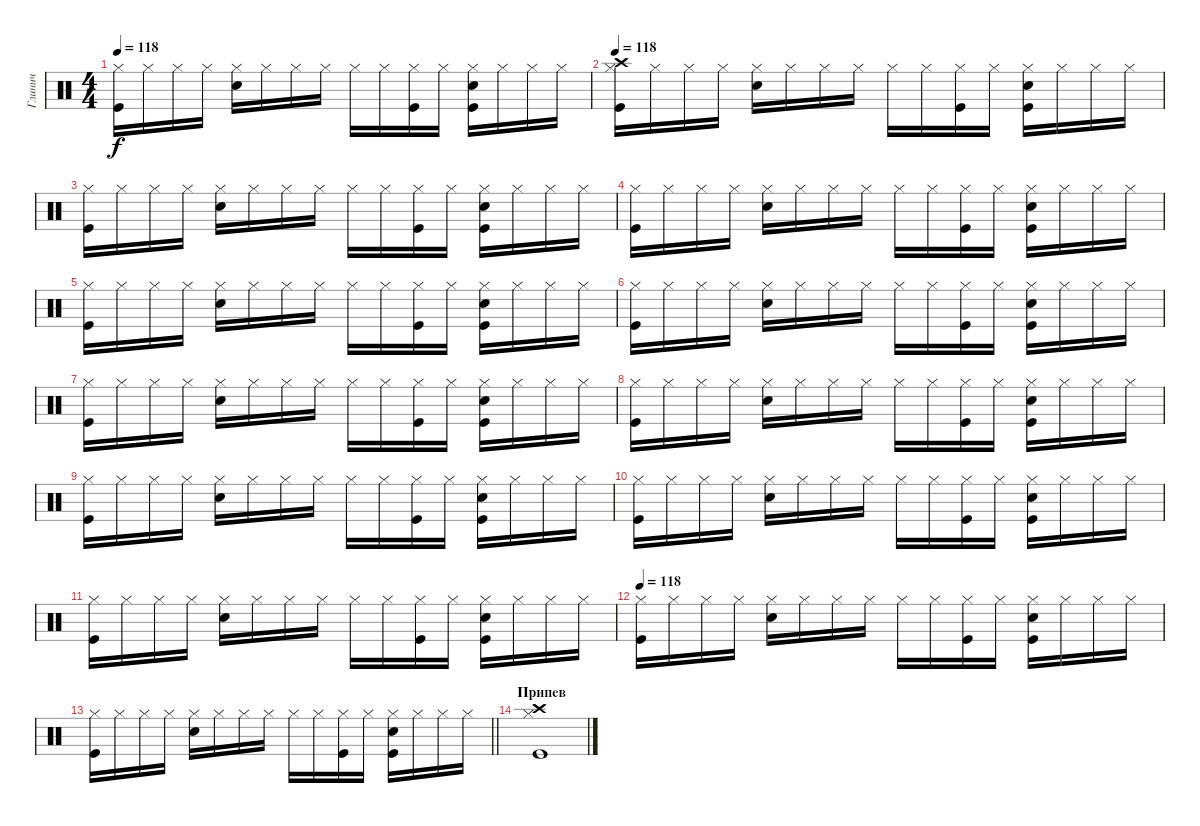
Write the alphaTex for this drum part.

\track ("Глинич" "Глинич") {instrument percussion}
\staff {score}
\articulation defaults
\ts (4 4)
\tempo 118
\clef neutral
\ks c
("Hi-Hat (closed)" "Kick (hit)").16{dy f} "Hi-Hat (closed)".16 "Hi-Hat (closed)".16 "Hi-Hat (closed)".16 ("Hi-Hat (closed)" "Snare (hit) 2").16 "Hi-Hat (closed)".16 "Hi-Hat (closed)".16 "Hi-Hat (closed)".16 "Hi-Hat (closed)".16 "Hi-Hat (closed)".16 ("Hi-Hat (closed)" "Kick (hit)").16 "Hi-Hat (closed)".16 ("Hi-Hat (closed)" "Snare (hit) 2" "Kick (hit)").16 "Hi-Hat (closed)".16 "Hi-Hat (closed)".16 "Hi-Hat (closed)".16 |
\tempo 118
("Hi-Hat (closed)" "Kick (hit)" "Crash high (hit)").16 "Hi-Hat (closed)".16 "Hi-Hat (closed)".16 "Hi-Hat (closed)".16 ("Hi-Hat (closed)" "Snare (hit) 2").16 "Hi-Hat (closed)".16 "Hi-Hat (closed)".16 "Hi-Hat (closed)".16 "Hi-Hat (closed)".16 "Hi-Hat (closed)".16 ("Hi-Hat (closed)" "Kick (hit)").16 "Hi-Hat (closed)".16 ("Hi-Hat (closed)" "Snare (hit) 2" "Kick (hit)").16 "Hi-Hat (closed)".16 "Hi-Hat (closed)".16 "Hi-Hat (closed)".16 |
("Hi-Hat (closed)" "Kick (hit)").16 "Hi-Hat (closed)".16 "Hi-Hat (closed)".16 "Hi-Hat (closed)".16 ("Hi-Hat (closed)" "Snare (hit) 2").16 "Hi-Hat (closed)".16 "Hi-Hat (closed)".16 "Hi-Hat (closed)".16 "Hi-Hat (closed)".16 "Hi-Hat (closed)".16 ("Hi-Hat (closed)" "Kick (hit)").16 "Hi-Hat (closed)".16 ("Hi-Hat (closed)" "Snare (hit) 2" "Kick (hit)").16 "Hi-Hat (closed)".16 "Hi-Hat (closed)".16 "Hi-Hat (closed)".16 |
("Hi-Hat (closed)" "Kick (hit)").16 "Hi-Hat (closed)".16 "Hi-Hat (closed)".16 "Hi-Hat (closed)".16 ("Hi-Hat (closed)" "Snare (hit) 2").16 "Hi-Hat (closed)".16 "Hi-Hat (closed)".16 "Hi-Hat (closed)".16 "Hi-Hat (closed)".16 "Hi-Hat (closed)".16 ("Hi-Hat (closed)" "Kick (hit)").16 "Hi-Hat (closed)".16 ("Hi-Hat (closed)" "Snare (hit) 2" "Kick (hit)").16 "Hi-Hat (closed)".16 "Hi-Hat (closed)".16 "Hi-Hat (closed)".16 |
("Hi-Hat (closed)" "Kick (hit)").16 "Hi-Hat (closed)".16 "Hi-Hat (closed)".16 "Hi-Hat (closed)".16 ("Hi-Hat (closed)" "Snare (hit) 2").16 "Hi-Hat (closed)".16 "Hi-Hat (closed)".16 "Hi-Hat (closed)".16 "Hi-Hat (closed)".16 "Hi-Hat (closed)".16 ("Hi-Hat (closed)" "Kick (hit)").16 "Hi-Hat (closed)".16 ("Hi-Hat (closed)" "Snare (hit) 2" "Kick (hit)").16 "Hi-Hat (closed)".16 "Hi-Hat (closed)".16 "Hi-Hat (closed)".16 |
("Hi-Hat (closed)" "Kick (hit)").16 "Hi-Hat (closed)".16 "Hi-Hat (closed)".16 "Hi-Hat (closed)".16 ("Hi-Hat (closed)" "Snare (hit) 2").16 "Hi-Hat (closed)".16 "Hi-Hat (closed)".16 "Hi-Hat (closed)".16 "Hi-Hat (closed)".16 "Hi-Hat (closed)".16 ("Hi-Hat (closed)" "Kick (hit)").16 "Hi-Hat (closed)".16 ("Hi-Hat (closed)" "Snare (hit) 2" "Kick (hit)").16 "Hi-Hat (closed)".16 "Hi-Hat (closed)".16 "Hi-Hat (closed)".16 |
("Hi-Hat (closed)" "Kick (hit)").16 "Hi-Hat (closed)".16 "Hi-Hat (closed)".16 "Hi-Hat (closed)".16 ("Hi-Hat (closed)" "Snare (hit) 2").16 "Hi-Hat (closed)".16 "Hi-Hat (closed)".16 "Hi-Hat (closed)".16 "Hi-Hat (closed)".16 "Hi-Hat (closed)".16 ("Hi-Hat (closed)" "Kick (hit)").16 "Hi-Hat (closed)".16 ("Hi-Hat (closed)" "Snare (hit) 2" "Kick (hit)").16 "Hi-Hat (closed)".16 "Hi-Hat (closed)".16 "Hi-Hat (closed)".16 |
("Hi-Hat (closed)" "Kick (hit)").16 "Hi-Hat (closed)".16 "Hi-Hat (closed)".16 "Hi-Hat (closed)".16 ("Hi-Hat (closed)" "Snare (hit) 2").16 "Hi-Hat (closed)".16 "Hi-Hat (closed)".16 "Hi-Hat (closed)".16 "Hi-Hat (closed)".16 "Hi-Hat (closed)".16 ("Hi-Hat (closed)" "Kick (hit)").16 "Hi-Hat (closed)".16 ("Hi-Hat (closed)" "Snare (hit) 2" "Kick (hit)").16 "Hi-Hat (closed)".16 "Hi-Hat (closed)".16 "Hi-Hat (closed)".16 |
("Hi-Hat (closed)" "Kick (hit)").16 "Hi-Hat (closed)".16 "Hi-Hat (closed)".16 "Hi-Hat (closed)".16 ("Hi-Hat (closed)" "Snare (hit) 2").16 "Hi-Hat (closed)".16 "Hi-Hat (closed)".16 "Hi-Hat (closed)".16 "Hi-Hat (closed)".16 "Hi-Hat (closed)".16 ("Hi-Hat (closed)" "Kick (hit)").16 "Hi-Hat (closed)".16 ("Hi-Hat (closed)" "Snare (hit) 2" "Kick (hit)").16 "Hi-Hat (closed)".16 "Hi-Hat (closed)".16 "Hi-Hat (closed)".16 |
("Hi-Hat (closed)" "Kick (hit)").16 "Hi-Hat (closed)".16 "Hi-Hat (closed)".16 "Hi-Hat (closed)".16 ("Hi-Hat (closed)" "Snare (hit) 2").16 "Hi-Hat (closed)".16 "Hi-Hat (closed)".16 "Hi-Hat (closed)".16 "Hi-Hat (closed)".16 "Hi-Hat (closed)".16 ("Hi-Hat (closed)" "Kick (hit)").16 "Hi-Hat (closed)".16 ("Hi-Hat (closed)" "Snare (hit) 2" "Kick (hit)").16 "Hi-Hat (closed)".16 "Hi-Hat (closed)".16 "Hi-Hat (closed)".16 |
("Hi-Hat (closed)" "Kick (hit)").16 "Hi-Hat (closed)".16 "Hi-Hat (closed)".16 "Hi-Hat (closed)".16 ("Hi-Hat (closed)" "Snare (hit) 2").16 "Hi-Hat (closed)".16 "Hi-Hat (closed)".16 "Hi-Hat (closed)".16 "Hi-Hat (closed)".16 "Hi-Hat (closed)".16 ("Hi-Hat (closed)" "Kick (hit)").16 "Hi-Hat (closed)".16 ("Hi-Hat (closed)" "Snare (hit) 2" "Kick (hit)").16 "Hi-Hat (closed)".16 "Hi-Hat (closed)".16 "Hi-Hat (closed)".16 |
\tempo 118
("Hi-Hat (closed)" "Kick (hit)").16 "Hi-Hat (closed)".16 "Hi-Hat (closed)".16 "Hi-Hat (closed)".16 ("Hi-Hat (closed)" "Snare (hit) 2").16 "Hi-Hat (closed)".16 "Hi-Hat (closed)".16 "Hi-Hat (closed)".16 "Hi-Hat (closed)".16 "Hi-Hat (closed)".16 ("Hi-Hat (closed)" "Kick (hit)").16 "Hi-Hat (closed)".16 ("Hi-Hat (closed)" "Snare (hit) 2" "Kick (hit)").16 "Hi-Hat (closed)".16 "Hi-Hat (closed)".16 "Hi-Hat (closed)".16 |
\barLineRight lightlight
("Hi-Hat (closed)" "Kick (hit)").16 "Hi-Hat (closed)".16 "Hi-Hat (closed)".16 "Hi-Hat (closed)".16 ("Hi-Hat (closed)" "Snare (hit) 2").16 "Hi-Hat (closed)".16 "Hi-Hat (closed)".16 "Hi-Hat (closed)".16 "Hi-Hat (closed)".16 "Hi-Hat (closed)".16 ("Hi-Hat (closed)" "Kick (hit)").16 "Hi-Hat (closed)".16 ("Hi-Hat (closed)" "Snare (hit) 2" "Kick (hit)").16 "Hi-Hat (closed)".16 "Hi-Hat (closed)".16 "Hi-Hat (closed)".16 |
\section ("" "Припев")
("Hi-Hat (closed)" "Kick (hit)" "Crash high (hit)").1
